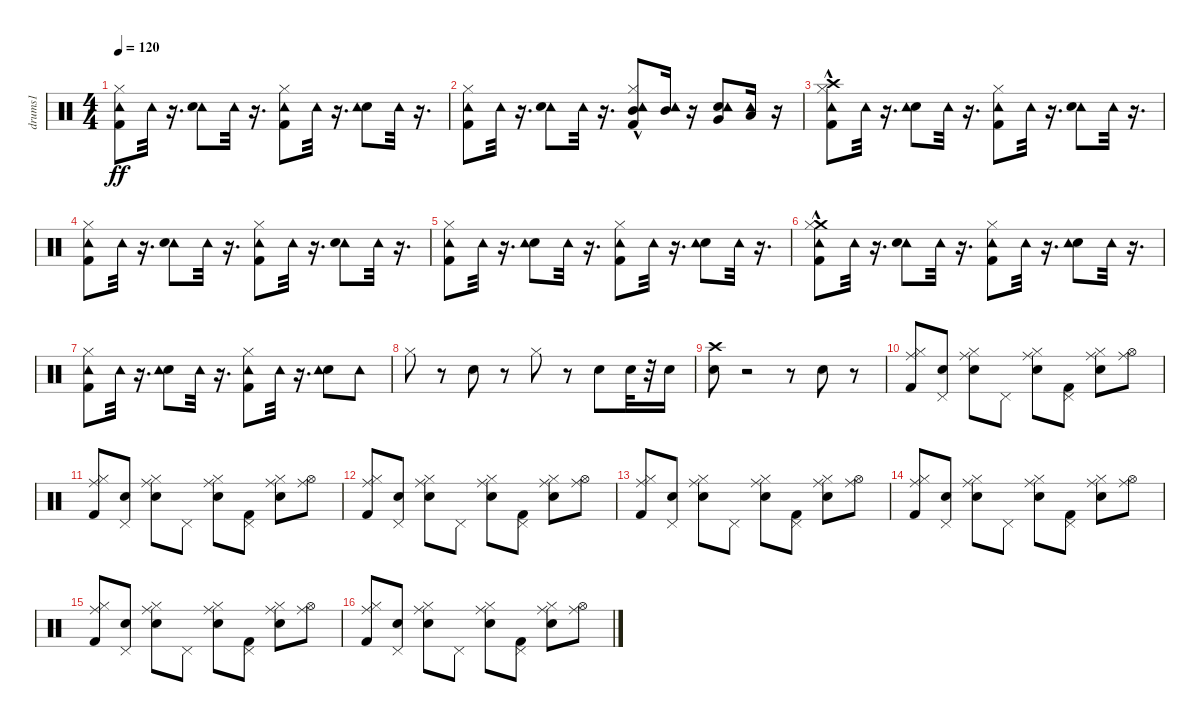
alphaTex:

\track ("drums1" "drums1") {instrument percussion}
\staff {score}
\articulation defaults
\ts (4 4)
\tempo 120
\clef neutral
\ks c
("Kick (hit) 2" "Tambourine (hit)" "Hi-Hat (closed)").8{dy ff} "Tambourine (hit)".32 r.16{d} ("Tambourine (hit)" "Snare (hit) 2").8 "Tambourine (hit)".32 r.16{d} ("Tambourine (hit)" "Hi-Hat (closed)" "Kick (hit) 2").8 "Tambourine (hit)".32 r.16{d} ("Snare (hit) 2" "Tambourine (hit)").8 "Tambourine (hit)".32 r.16{d} |
("Tambourine (hit)" "Hi-Hat (closed)" "Kick (hit) 2").8 "Tambourine (hit)".32 r.16{d} ("Tambourine (hit)" "Snare (hit) 2").8 "Tambourine (hit)".32 r.16{d} ("Mid Tom (hit)"{hac} "Kick (hit) 2" "Tambourine (hit)" "Hi-Hat (closed)").8 ("Mid Tom (hit)" "Tambourine (hit)").16 r.16 ("Very Low Tom (hit)" "Snare (hit) 2" "Tambourine (hit)").8 ("Low Floor Tom (hit)" "Tambourine (hit)").16 r.16 |
("Crash high (hit)"{hac} "Kick (hit) 2" "Tambourine (hit)" "Hi-Hat (closed)").8 "Tambourine (hit)".32 r.16{d} ("Snare (hit) 2" "Tambourine (hit)").8 "Tambourine (hit)".32 r.16{d} ("Kick (hit) 2" "Tambourine (hit)" "Hi-Hat (closed)").8 "Tambourine (hit)".32 r.16{d} ("Tambourine (hit)" "Snare (hit) 2").8 "Tambourine (hit)".32 r.16{d} |
("Tambourine (hit)" "Hi-Hat (closed)" "Kick (hit) 2").8 "Tambourine (hit)".32 r.16{d} ("Tambourine (hit)" "Snare (hit) 2").8 "Tambourine (hit)".32 r.16{d} ("Tambourine (hit)" "Hi-Hat (closed)" "Kick (hit) 2").8 "Tambourine (hit)".32 r.16{d} ("Tambourine (hit)" "Snare (hit) 2").8 "Tambourine (hit)".32 r.16{d} |
("Tambourine (hit)" "Hi-Hat (closed)" "Kick (hit) 2").8 "Tambourine (hit)".32 r.16{d} ("Snare (hit) 2" "Tambourine (hit)").8 "Tambourine (hit)".32 r.16{d} ("Kick (hit) 2" "Tambourine (hit)" "Hi-Hat (closed)").8 "Tambourine (hit)".32 r.16{d} ("Snare (hit) 2" "Tambourine (hit)").8 "Tambourine (hit)".32 r.16{d} |
("Crash medium (hit)"{hac} "Kick (hit) 2" "Tambourine (hit)" "Hi-Hat (closed)").8 "Tambourine (hit)".32 r.16{d} ("Tambourine (hit)" "Snare (hit) 2").8 "Tambourine (hit)".32 r.16{d} ("Tambourine (hit)" "Hi-Hat (closed)" "Kick (hit) 2").8 "Tambourine (hit)".32 r.16{d} ("Snare (hit) 2" "Tambourine (hit)").8 "Tambourine (hit)".32 r.16{d} |
("Tambourine (hit)" "Hi-Hat (closed)" "Kick (hit) 2").8 "Tambourine (hit)".32 r.16{d} ("Snare (hit) 2" "Tambourine (hit)").8 "Tambourine (hit)".32 r.16{d} ("Kick (hit) 2" "Tambourine (hit)" "Hi-Hat (closed)").8 "Tambourine (hit)".32 r.16{d} ("Snare (hit) 2" "Tambourine (hit)").8 "Tambourine (hit)".8 |
"Hi-Hat (closed)".8 r.8 "Snare (hit) 2".8 r.8 "Hi-Hat (closed)".8 r.8 "Snare (hit) 2".8 "Snare (hit) 2".32 r.32 "Snare (hit) 2".16 |
("Crash high (hit)" "Snare (hit) 2").8 r.2 r.8 "Snare (hit) 2".8 r.8 |
("Kick (hit) 2" "Ride (middle)" "Hi-Hat (closed)").8 ("Pedal Hi-Hat (hit)" "Hand Clap (hit)").8 ("Snare (hit) 2" "Ride (middle)" "Hi-Hat (closed)").8 "Pedal Hi-Hat (hit)".8 ("Ride (middle)" "Hi-Hat (closed)" "Hand Clap (hit)").8 ("Kick (hit) 2" "Pedal Hi-Hat (hit)").8 ("Snare (hit) 2" "Ride (middle)" "Hi-Hat (closed)").8 ("Ride (middle)" "Hi-Hat (open)").8 |
("Kick (hit) 2" "Ride (middle)" "Hi-Hat (closed)").8 ("Pedal Hi-Hat (hit)" "Hand Clap (hit)").8 ("Snare (hit) 2" "Ride (middle)" "Hi-Hat (closed)").8 "Pedal Hi-Hat (hit)".8 ("Ride (middle)" "Hi-Hat (closed)" "Hand Clap (hit)").8 ("Kick (hit) 2" "Pedal Hi-Hat (hit)").8 ("Snare (hit) 2" "Ride (middle)" "Hi-Hat (closed)").8 ("Ride (middle)" "Hi-Hat (open)").8 |
("Kick (hit) 2" "Ride (middle)" "Hi-Hat (closed)").8 ("Pedal Hi-Hat (hit)" "Hand Clap (hit)").8 ("Snare (hit) 2" "Ride (middle)" "Hi-Hat (closed)").8 "Pedal Hi-Hat (hit)".8 ("Ride (middle)" "Hi-Hat (closed)" "Hand Clap (hit)").8 ("Kick (hit) 2" "Pedal Hi-Hat (hit)").8 ("Snare (hit) 2" "Ride (middle)" "Hi-Hat (closed)").8 ("Ride (middle)" "Hi-Hat (open)").8 |
("Ride (middle)" "Hi-Hat (closed)" "Kick (hit) 2").8 ("Pedal Hi-Hat (hit)" "Hand Clap (hit)").8 ("Ride (middle)" "Hi-Hat (closed)" "Snare (hit) 2").8 "Pedal Hi-Hat (hit)".8 ("Ride (middle)" "Hi-Hat (closed)" "Hand Clap (hit)").8 ("Kick (hit) 2" "Pedal Hi-Hat (hit)").8 ("Ride (middle)" "Hi-Hat (closed)" "Snare (hit) 2").8 ("Ride (middle)" "Hi-Hat (open)").8 |
("Ride (middle)" "Hi-Hat (closed)" "Kick (hit) 2").8 ("Pedal Hi-Hat (hit)" "Hand Clap (hit)").8 ("Ride (middle)" "Hi-Hat (closed)" "Snare (hit) 2").8 "Pedal Hi-Hat (hit)".8 ("Ride (middle)" "Hi-Hat (closed)" "Hand Clap (hit)").8 ("Kick (hit) 2" "Pedal Hi-Hat (hit)").8 ("Ride (middle)" "Hi-Hat (closed)" "Snare (hit) 2").8 ("Ride (middle)" "Hi-Hat (open)").8 |
("Ride (middle)" "Hi-Hat (closed)" "Kick (hit) 2").8 ("Pedal Hi-Hat (hit)" "Hand Clap (hit)").8 ("Ride (middle)" "Hi-Hat (closed)" "Snare (hit) 2").8 "Pedal Hi-Hat (hit)".8 ("Ride (middle)" "Hi-Hat (closed)" "Hand Clap (hit)").8 ("Kick (hit) 2" "Pedal Hi-Hat (hit)").8 ("Ride (middle)" "Hi-Hat (closed)" "Snare (hit) 2").8 ("Ride (middle)" "Hi-Hat (open)").8 |
("Ride (middle)" "Hi-Hat (closed)" "Kick (hit) 2").8 ("Pedal Hi-Hat (hit)" "Hand Clap (hit)").8 ("Ride (middle)" "Hi-Hat (closed)" "Snare (hit) 2").8 "Pedal Hi-Hat (hit)".8 ("Ride (middle)" "Hi-Hat (closed)" "Hand Clap (hit)").8 ("Kick (hit) 2" "Pedal Hi-Hat (hit)").8 ("Ride (middle)" "Hi-Hat (closed)" "Snare (hit) 2").8 ("Ride (middle)" "Hi-Hat (open)").8
